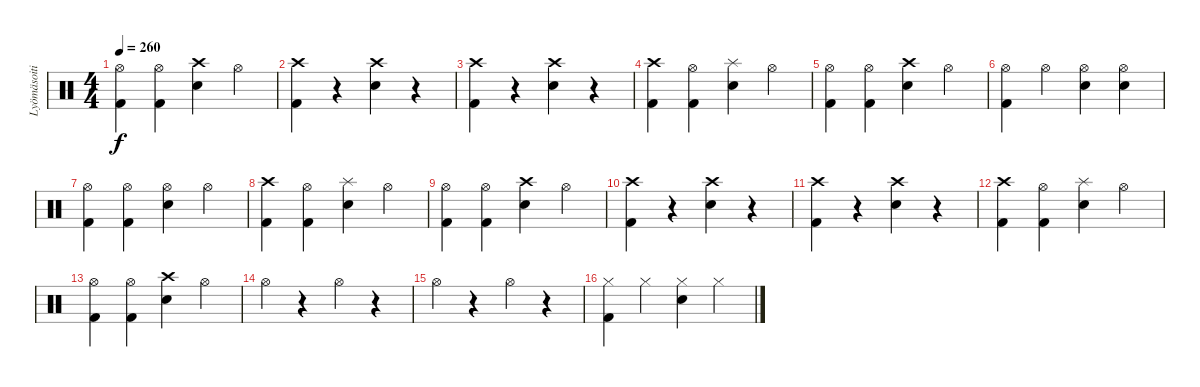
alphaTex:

\track ("Lyömäsoitin" "Lyömäsoiti") {instrument percussion}
\staff {score}
\articulation defaults
\ts (4 4)
\tempo 260
\clef neutral
\ks c
("Hi-Hat (open)" "Kick (hit) 2").4{dy f} ("Hi-Hat (open)" "Kick (hit) 2").4 ("Crash high (hit)" "Electric Snare (hit)").4 "Hi-Hat (open)".4 |
("Crash high (hit)" "Kick (hit) 2").4 r.4 ("Crash high (hit)" "Electric Snare (hit)").4 r.4 |
("Crash high (hit)" "Kick (hit) 2").4 r.4 ("Crash high (hit)" "Electric Snare (hit)").4 r.4 |
("Crash high (hit)" "Kick (hit) 2").4 ("Hi-Hat (open)" "Kick (hit) 2").4 ("Splash (hit)" "Electric Snare (hit)").4 "Hi-Hat (open)".4 |
("Hi-Hat (open)" "Kick (hit) 2").4 ("Hi-Hat (open)" "Kick (hit) 2").4 ("Crash high (hit)" "Electric Snare (hit)").4 "Hi-Hat (open)".4 |
("Hi-Hat (open)" "Kick (hit) 2").4 "Hi-Hat (open)".4 ("Hi-Hat (open)" "Electric Snare (hit)").4 ("Hi-Hat (open)" "Electric Snare (hit)").4 |
("Hi-Hat (open)" "Kick (hit) 2").4 ("Hi-Hat (open)" "Kick (hit) 2").4 ("Hi-Hat (open)" "Electric Snare (hit)").4 "Hi-Hat (open)".4 |
("Crash high (hit)" "Kick (hit) 2").4 ("Hi-Hat (open)" "Kick (hit) 2").4 ("Splash (hit)" "Electric Snare (hit)").4 "Hi-Hat (open)".4 |
("Hi-Hat (open)" "Kick (hit) 2").4 ("Hi-Hat (open)" "Kick (hit) 2").4 ("Crash high (hit)" "Electric Snare (hit)").4 "Hi-Hat (open)".4 |
("Crash high (hit)" "Kick (hit) 2").4 r.4 ("Crash high (hit)" "Electric Snare (hit)").4 r.4 |
("Crash high (hit)" "Kick (hit) 2").4 r.4 ("Crash high (hit)" "Electric Snare (hit)").4 r.4 |
("Crash high (hit)" "Kick (hit) 2").4 ("Hi-Hat (open)" "Kick (hit) 2").4 ("Splash (hit)" "Electric Snare (hit)").4 "Hi-Hat (open)".4 |
("Hi-Hat (open)" "Kick (hit) 2").4 ("Hi-Hat (open)" "Kick (hit) 2").4 ("Crash high (hit)" "Electric Snare (hit)").4 "Hi-Hat (open)".4 |
"Hi-Hat (open)".4 r.4 "Hi-Hat (open)".4 r.4 |
"Hi-Hat (open)".4 r.4 "Hi-Hat (open)".4 r.4 |
("Hi-Hat (closed)" "Kick (hit) 2").4 "Hi-Hat (closed)".4 ("Hi-Hat (closed)" "Electric Snare (hit)").4 "Hi-Hat (closed)".4
